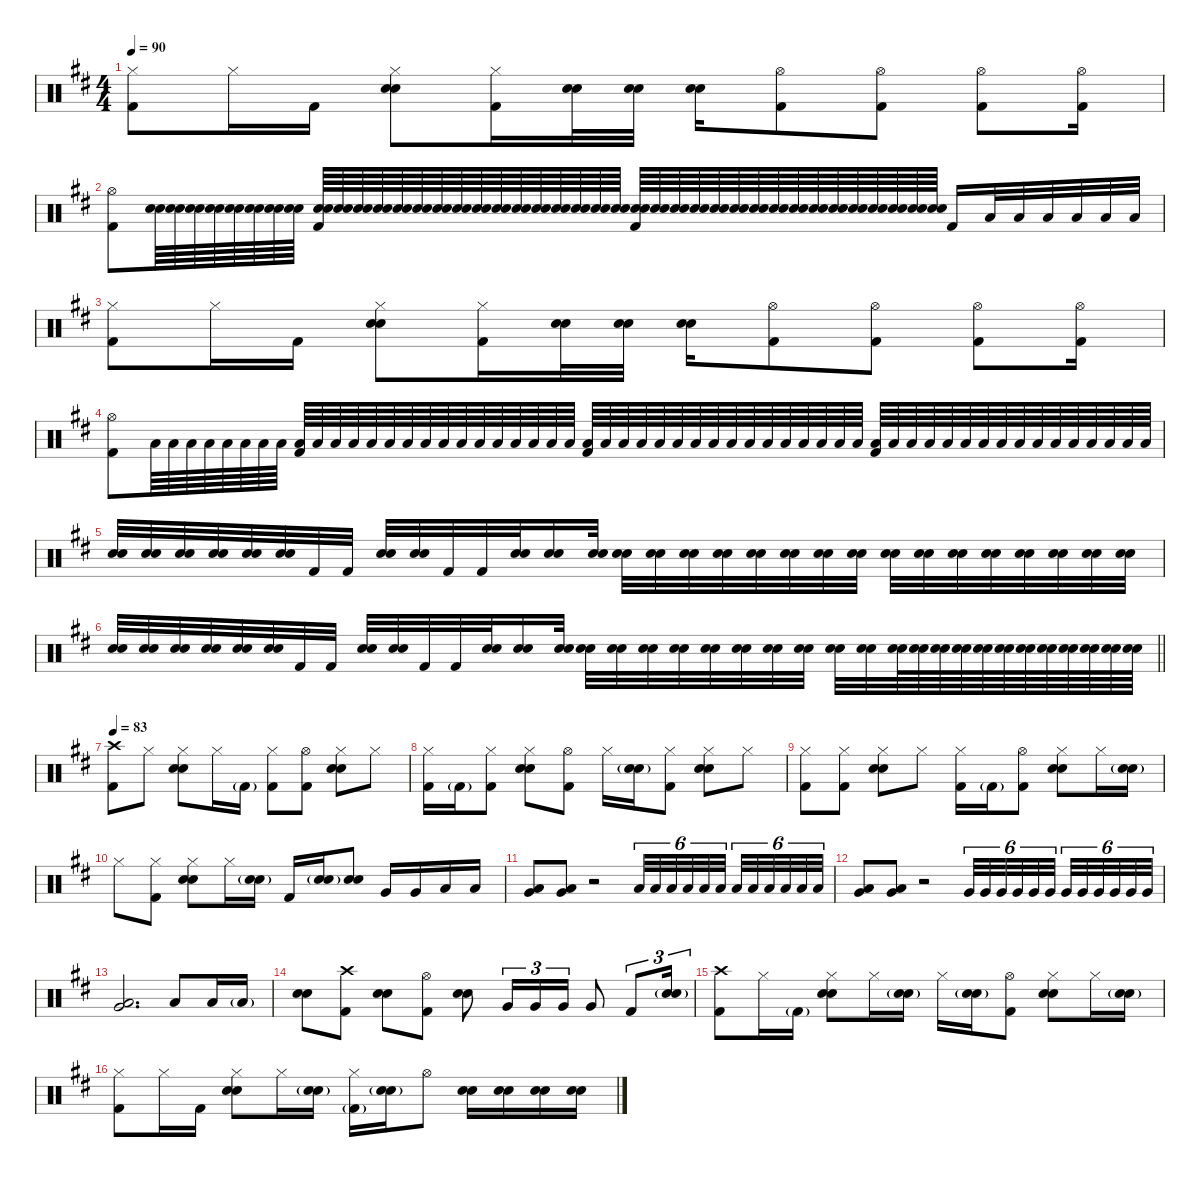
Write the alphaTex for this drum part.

\defaultSystemsLayout 4
\hideDynamics
\bracketExtendMode nobrackets
\singleTrackTrackNamePolicy hidden
\multiTrackTrackNamePolicy hidden
\firstSystemTrackNameMode fullname
\firstSystemTrackNameOrientation horizontal
\otherSystemsTrackNameOrientation horizontal
\track ("Batterie" "drm.") {defaultSystemsLayout 4 instrument percussion}
\staff {score}
\articulation defaults
\ts (4 4)
\tempo 90
\clef neutral
\ks bminor
("Hi-Hat (closed)"{acc forcenatural} "Kick (hit) 2"{acc forcenatural}).8{dy f beam Down} "Hi-Hat (closed)"{acc forcenatural}.16{beam Down} "Kick (hit) 2"{acc forcenatural}.16{dy mf beam Down} ("Hi-Hat (closed)"{acc forcenatural} "Snare (hit) 2"{acc forcenatural} "Snare (hit) 2"{acc forcenatural}).8{dy f beam Down} ("Hi-Hat (closed)"{acc forcenatural} "Kick (hit) 2"{acc forcenatural}).16{beam Down} ("Snare (hit) 2"{acc forcenatural} "Snare (hit) 2"{acc forcenatural}).32{dy p beam Down} ("Snare (hit) 2"{acc forcenatural} "Snare (hit) 2"{acc forcenatural}).32{dy mp beam Down} ("Snare (hit) 2"{acc forcenatural} "Snare (hit) 2"{acc forcenatural}).16{dy f beam Down} ("Hi-Hat (open)"{acc forcenatural} "Kick (hit) 2"{acc forcenatural}).8{beam Down} ("Hi-Hat (open)"{acc forcenatural} "Kick (hit) 2"{acc forcenatural}).8{beam Down} ("Hi-Hat (open)"{acc forcenatural} "Kick (hit) 2"{acc forcenatural}).8{beam Down} ("Hi-Hat (open)"{acc forcenatural} "Kick (hit) 2"{acc forcenatural}).16{beam Down} |
("Hi-Hat (open)"{acc forcenatural} "Kick (hit) 2"{acc forcenatural}).8{beam Down} ("Snare (hit) 2"{acc forcenatural} "Snare (hit) 2"{acc forcenatural}).64{dy pp beam Down} ("Snare (hit) 2"{acc forcenatural} "Snare (hit) 2"{acc forcenatural}).64{beam Down} ("Snare (hit) 2"{acc forcenatural} "Snare (hit) 2"{acc forcenatural}).64{beam Down} ("Snare (hit) 2"{acc forcenatural} "Snare (hit) 2"{acc forcenatural}).64{beam Down} ("Snare (hit) 2"{acc forcenatural} "Snare (hit) 2"{acc forcenatural}).64{beam Down} ("Snare (hit) 2"{acc forcenatural} "Snare (hit) 2"{acc forcenatural}).64{beam Down} ("Snare (hit) 2"{acc forcenatural} "Snare (hit) 2"{acc forcenatural}).64{beam Down} ("Snare (hit) 2"{acc forcenatural} "Snare (hit) 2"{acc forcenatural}).64{beam Down} ("Snare (hit) 2"{acc forcenatural} "Snare (hit) 2"{acc forcenatural} "Kick (hit) 2"{acc forcenatural}).64{beam Up} ("Snare (hit) 2"{acc forcenatural} "Snare (hit) 2"{acc forcenatural}).64{beam Up} ("Snare (hit) 2"{acc forcenatural} "Snare (hit) 2"{acc forcenatural}).64{beam Up} ("Snare (hit) 2"{acc forcenatural} "Snare (hit) 2"{acc forcenatural}).64{beam Up} ("Snare (hit) 2"{acc forcenatural} "Snare (hit) 2"{acc forcenatural}).64{dy p beam Up} ("Snare (hit) 2"{acc forcenatural} "Snare (hit) 2"{acc forcenatural}).64{beam Up} ("Snare (hit) 2"{acc forcenatural} "Snare (hit) 2"{acc forcenatural}).64{beam Up} ("Snare (hit) 2"{acc forcenatural} "Snare (hit) 2"{acc forcenatural}).64{beam Up} ("Snare (hit) 2"{acc forcenatural} "Snare (hit) 2"{acc forcenatural}).64{beam Up} ("Snare (hit) 2"{acc forcenatural} "Snare (hit) 2"{acc forcenatural}).64{beam Up} ("Snare (hit) 2"{acc forcenatural} "Snare (hit) 2"{acc forcenatural}).64{beam Up} ("Snare (hit) 2"{acc forcenatural} "Snare (hit) 2"{acc forcenatural}).64{beam Up} ("Snare (hit) 2"{acc forcenatural} "Snare (hit) 2"{acc forcenatural}).64{beam Up} ("Snare (hit) 2"{acc forcenatural} "Snare (hit) 2"{acc forcenatural}).64{beam Up} ("Snare (hit) 2"{acc forcenatural} "Snare (hit) 2"{acc forcenatural}).64{beam Up} ("Snare (hit) 2"{acc forcenatural} "Snare (hit) 2"{acc forcenatural}).64{beam Up} ("Snare (hit) 2"{acc forcenatural} "Snare (hit) 2"{acc forcenatural} "Kick (hit) 2"{acc forcenatural}).64{beam Up} ("Snare (hit) 2"{acc forcenatural} "Snare (hit) 2"{acc forcenatural}).64{beam Up} ("Snare (hit) 2"{acc forcenatural} "Snare (hit) 2"{acc forcenatural}).64{beam Up} ("Snare (hit) 2"{acc forcenatural} "Snare (hit) 2"{acc forcenatural}).64{dy mp beam Up} ("Snare (hit) 2"{acc forcenatural} "Snare (hit) 2"{acc forcenatural}).64{beam Up} ("Snare (hit) 2"{acc forcenatural} "Snare (hit) 2"{acc forcenatural}).64{beam Up} ("Snare (hit) 2"{acc forcenatural} "Snare (hit) 2"{acc forcenatural}).64{dy mf beam Up} ("Snare (hit) 2"{acc forcenatural} "Snare (hit) 2"{acc forcenatural}).64{beam Up} ("Snare (hit) 2"{acc forcenatural} "Snare (hit) 2"{acc forcenatural}).64{beam Up} ("Snare (hit) 2"{acc forcenatural} "Snare (hit) 2"{acc forcenatural}).64{beam Up} ("Snare (hit) 2"{acc forcenatural} "Snare (hit) 2"{acc forcenatural}).64{beam Up} ("Snare (hit) 2"{acc forcenatural} "Snare (hit) 2"{acc forcenatural}).64{beam Up} ("Snare (hit) 2"{acc forcenatural} "Snare (hit) 2"{acc forcenatural}).64{dy f beam Up} ("Snare (hit) 2"{acc forcenatural} "Snare (hit) 2"{acc forcenatural}).64{beam Up} ("Snare (hit) 2"{acc forcenatural} "Snare (hit) 2"{acc forcenatural}).64{beam Up} ("Snare (hit) 2"{acc forcenatural} "Snare (hit) 2"{acc forcenatural}).64{beam Up} "Kick (hit) 2"{acc forcenatural}.16{dy mf beam Up} "Low Floor Tom (hit)"{acc forcenatural}.32{dy fff beam Up} "Low Floor Tom (hit)"{acc forcenatural}.32{beam Up} "Low Tom (hit)"{acc forcenatural}.32{beam Up} "Low Tom (hit)"{acc forcenatural}.32{beam Up} "Low Tom (hit)"{acc forcenatural}.32{beam Up} "Low Tom (hit)"{acc forcenatural}.32{beam Up} |
("Hi-Hat (closed)"{acc forcenatural} "Kick (hit) 2"{acc forcenatural}).8{dy f beam Down} "Hi-Hat (closed)"{acc forcenatural}.16{beam Down} "Kick (hit) 2"{acc forcenatural}.16{dy mf beam Down} ("Hi-Hat (closed)"{acc forcenatural} "Snare (hit) 2"{acc forcenatural} "Snare (hit) 2"{acc forcenatural}).8{dy f beam Down} ("Hi-Hat (closed)"{acc forcenatural} "Kick (hit) 2"{acc forcenatural}).16{beam Down} ("Snare (hit) 2"{acc forcenatural} "Snare (hit) 2"{acc forcenatural}).32{dy p beam Down} ("Snare (hit) 2"{acc forcenatural} "Snare (hit) 2"{acc forcenatural}).32{dy mp beam Down} ("Snare (hit) 2"{acc forcenatural} "Snare (hit) 2"{acc forcenatural}).16{dy f beam Down} ("Hi-Hat (open)"{acc forcenatural} "Kick (hit) 2"{acc forcenatural}).8{beam Down} ("Hi-Hat (open)"{acc forcenatural} "Kick (hit) 2"{acc forcenatural}).8{beam Down} ("Hi-Hat (open)"{acc forcenatural} "Kick (hit) 2"{acc forcenatural}).8{beam Down} ("Hi-Hat (open)"{acc forcenatural} "Kick (hit) 2"{acc forcenatural}).16{beam Down} |
("Hi-Hat (open)"{acc forcenatural} "Kick (hit) 2"{acc forcenatural}).8{beam Down} "Low Floor Tom (hit)"{acc forcenatural}.64{dy pp beam Down} "Low Floor Tom (hit)"{acc forcenatural}.64{beam Down} "Low Floor Tom (hit)"{acc forcenatural}.64{beam Down} "Low Floor Tom (hit)"{acc forcenatural}.64{beam Down} "Low Floor Tom (hit)"{acc forcenatural}.64{beam Down} "Low Floor Tom (hit)"{acc forcenatural}.64{beam Down} "Low Floor Tom (hit)"{acc forcenatural}.64{beam Down} "Low Floor Tom (hit)"{acc forcenatural}.64{beam Down} ("Low Floor Tom (hit)"{acc forcenatural} "Kick (hit) 2"{acc forcenatural}).64{beam Up} "Low Floor Tom (hit)"{acc forcenatural}.64{dy p beam Up} "Low Floor Tom (hit)"{acc forcenatural}.64{beam Up} "Low Floor Tom (hit)"{acc forcenatural}.64{beam Up} "Low Floor Tom (hit)"{acc forcenatural}.64{beam Up} "Low Floor Tom (hit)"{acc forcenatural}.64{beam Up} "Low Floor Tom (hit)"{acc forcenatural}.64{beam Up} "Low Floor Tom (hit)"{acc forcenatural}.64{beam Up} "Low Floor Tom (hit)"{acc forcenatural}.64{beam Up} "Low Floor Tom (hit)"{acc forcenatural}.64{beam Up} "Low Floor Tom (hit)"{acc forcenatural}.64{beam Up} "Low Floor Tom (hit)"{acc forcenatural}.64{beam Up} "Low Floor Tom (hit)"{acc forcenatural}.64{beam Up} "Low Floor Tom (hit)"{acc forcenatural}.64{dy mp beam Up} "Low Floor Tom (hit)"{acc forcenatural}.64{beam Up} "Low Floor Tom (hit)"{acc forcenatural}.64{beam Up} ("Low Floor Tom (hit)"{acc forcenatural} "Kick (hit) 2"{acc forcenatural}).64{beam Up} "Low Floor Tom (hit)"{acc forcenatural}.64{beam Up} "Low Floor Tom (hit)"{acc forcenatural}.64{beam Up} "Low Floor Tom (hit)"{acc forcenatural}.64{beam Up} "Low Floor Tom (hit)"{acc forcenatural}.64{beam Up} "Low Floor Tom (hit)"{acc forcenatural}.64{beam Up} "Low Floor Tom (hit)"{acc forcenatural}.64{beam Up} "Low Floor Tom (hit)"{acc forcenatural}.64{beam Up} "Low Floor Tom (hit)"{acc forcenatural}.64{beam Up} "Low Floor Tom (hit)"{acc forcenatural}.64{beam Up} "Low Floor Tom (hit)"{acc forcenatural}.64{dy mf beam Up} "Low Floor Tom (hit)"{acc forcenatural}.64{beam Up} "Low Floor Tom (hit)"{acc forcenatural}.64{beam Up} "Low Floor Tom (hit)"{acc forcenatural}.64{beam Up} "Low Floor Tom (hit)"{acc forcenatural}.64{beam Up} "Low Floor Tom (hit)"{acc forcenatural}.64{beam Up} ("Low Floor Tom (hit)"{acc forcenatural} "Kick (hit) 2"{acc forcenatural}).64{beam Up} "Low Floor Tom (hit)"{acc forcenatural}.64{beam Up} "Low Floor Tom (hit)"{acc forcenatural}.64{beam Up} "Low Floor Tom (hit)"{acc forcenatural}.64{beam Up} "Low Floor Tom (hit)"{acc forcenatural}.64{beam Up} "Low Floor Tom (hit)"{acc forcenatural}.64{beam Up} "Low Floor Tom (hit)"{acc forcenatural}.64{beam Up} "Low Floor Tom (hit)"{acc forcenatural}.64{dy f beam Up} "Low Floor Tom (hit)"{acc forcenatural}.64{beam Up} "Low Floor Tom (hit)"{acc forcenatural}.64{beam Up} "Low Floor Tom (hit)"{acc forcenatural}.64{beam Up} "Low Floor Tom (hit)"{acc forcenatural}.64{beam Up} "Low Floor Tom (hit)"{acc forcenatural}.64{beam Up} "Low Floor Tom (hit)"{acc forcenatural}.64{beam Up} "Low Floor Tom (hit)"{acc forcenatural}.64{beam Up} "Low Floor Tom (hit)"{acc forcenatural}.64{beam Up} |
("Snare (hit) 2"{acc forcenatural} "Snare (hit) 2"{acc forcenatural}).32{beam Up} ("Snare (hit) 2"{acc forcenatural} "Snare (hit) 2"{acc forcenatural}).32{beam Up} ("Snare (hit) 2"{acc forcenatural} "Snare (hit) 2"{acc forcenatural}).32{beam Up} ("Snare (hit) 2"{acc forcenatural} "Snare (hit) 2"{acc forcenatural}).32{beam Up} ("Snare (hit) 2"{acc forcenatural} "Snare (hit) 2"{acc forcenatural}).32{beam Up} ("Snare (hit) 2"{acc forcenatural} "Snare (hit) 2"{acc forcenatural}).32{beam Up} "Kick (hit) 2"{acc forcenatural}.32{dy mf beam Up} "Kick (hit) 2"{acc forcenatural}.32{beam Up} ("Snare (hit) 2"{acc forcenatural} "Snare (hit) 2"{acc forcenatural}).32{dy f beam Up} ("Snare (hit) 2"{acc forcenatural} "Snare (hit) 2"{acc forcenatural}).32{beam Up} "Kick (hit) 2"{acc forcenatural}.32{dy mf beam Up} "Kick (hit) 2"{acc forcenatural}.32{beam Up} ("Snare (hit) 2"{acc forcenatural} "Snare (hit) 2"{acc forcenatural}).32{dy f beam Up} ("Snare (hit) 2"{acc forcenatural} "Snare (hit) 2"{acc forcenatural}).16{beam Up} ("Snare (hit) 2"{acc forcenatural} "Snare (hit) 2"{acc forcenatural}).32{dy mf beam Up} ("Snare (hit) 2"{acc forcenatural} "Snare (hit) 2"{acc forcenatural}).32{dy f beam Down} ("Snare (hit) 2"{acc forcenatural} "Snare (hit) 2"{acc forcenatural}).32{beam Down} ("Snare (hit) 2"{acc forcenatural} "Snare (hit) 2"{acc forcenatural}).32{dy mf beam Down} ("Snare (hit) 2"{acc forcenatural} "Snare (hit) 2"{acc forcenatural}).32{dy mp beam Down} ("Snare (hit) 2"{acc forcenatural} "Snare (hit) 2"{acc forcenatural}).32{dy mf beam Down} ("Snare (hit) 2"{acc forcenatural} "Snare (hit) 2"{acc forcenatural}).32{dy f beam Down} ("Snare (hit) 2"{acc forcenatural} "Snare (hit) 2"{acc forcenatural}).32{beam Down} ("Snare (hit) 2"{acc forcenatural} "Snare (hit) 2"{acc forcenatural}).32{dy mf beam Down} ("Snare (hit) 2"{acc forcenatural} "Snare (hit) 2"{acc forcenatural}).32{dy mp beam Down} ("Snare (hit) 2"{acc forcenatural} "Snare (hit) 2"{acc forcenatural}).32{dy mf beam Down} ("Snare (hit) 2"{acc forcenatural} "Snare (hit) 2"{acc forcenatural}).32{dy f beam Down} ("Snare (hit) 2"{acc forcenatural} "Snare (hit) 2"{acc forcenatural}).32{dy ff beam Down} ("Snare (hit) 2"{acc forcenatural} "Snare (hit) 2"{acc forcenatural}).32{beam Down} ("Snare (hit) 2"{acc forcenatural} "Snare (hit) 2"{acc forcenatural}).32{dy f beam Down} ("Snare (hit) 2"{acc forcenatural} "Snare (hit) 2"{acc forcenatural}).32{dy mf beam Down} ("Snare (hit) 2"{acc forcenatural} "Snare (hit) 2"{acc forcenatural}).32{dy mp beam Down} |
\barLineRight lightlight
("Snare (hit) 2"{acc forcenatural} "Snare (hit) 2"{acc forcenatural}).32{dy mf beam Up} ("Snare (hit) 2"{acc forcenatural} "Snare (hit) 2"{acc forcenatural}).32{dy f beam Up} ("Snare (hit) 2"{acc forcenatural} "Snare (hit) 2"{acc forcenatural}).32{beam Up} ("Snare (hit) 2"{acc forcenatural} "Snare (hit) 2"{acc forcenatural}).32{beam Up} ("Snare (hit) 2"{acc forcenatural} "Snare (hit) 2"{acc forcenatural}).32{beam Up} ("Snare (hit) 2"{acc forcenatural} "Snare (hit) 2"{acc forcenatural}).32{beam Up} "Kick (hit) 2"{acc forcenatural}.32{dy mf beam Up} "Kick (hit) 2"{acc forcenatural}.32{beam Up} ("Snare (hit) 2"{acc forcenatural} "Snare (hit) 2"{acc forcenatural}).32{dy f beam Up} ("Snare (hit) 2"{acc forcenatural} "Snare (hit) 2"{acc forcenatural}).32{beam Up} "Kick (hit) 2"{acc forcenatural}.32{dy mf beam Up} "Kick (hit) 2"{acc forcenatural}.32{beam Up} ("Snare (hit) 2"{acc forcenatural} "Snare (hit) 2"{acc forcenatural}).32{dy f beam Up} ("Snare (hit) 2"{acc forcenatural} "Snare (hit) 2"{acc forcenatural}).16{beam Up} ("Snare (hit) 2"{acc forcenatural} "Snare (hit) 2"{acc forcenatural}).32{dy mf beam Up} ("Snare (hit) 2"{acc forcenatural} "Snare (hit) 2"{acc forcenatural}).32{dy f beam Down} ("Snare (hit) 2"{acc forcenatural} "Snare (hit) 2"{acc forcenatural}).32{beam Down} ("Snare (hit) 2"{acc forcenatural} "Snare (hit) 2"{acc forcenatural}).32{dy mf beam Down} ("Snare (hit) 2"{acc forcenatural} "Snare (hit) 2"{acc forcenatural}).32{dy mp beam Down} ("Snare (hit) 2"{acc forcenatural} "Snare (hit) 2"{acc forcenatural}).32{beam Down} ("Snare (hit) 2"{acc forcenatural} "Snare (hit) 2"{acc forcenatural}).32{dy mf beam Down} ("Snare (hit) 2"{acc forcenatural} "Snare (hit) 2"{acc forcenatural}).32{dy f beam Down} ("Snare (hit) 2"{acc forcenatural} "Snare (hit) 2"{acc forcenatural}).32{dy ff beam Down} ("Snare (hit) 2"{acc forcenatural} "Snare (hit) 2"{acc forcenatural}).32{dy f beam Down} ("Snare (hit) 2"{acc forcenatural} "Snare (hit) 2"{acc forcenatural}).32{beam Down} ("Snare (hit) 2"{acc forcenatural} "Snare (hit) 2"{acc forcenatural}).64{beam Down} ("Snare (hit) 2"{acc forcenatural} "Snare (hit) 2"{acc forcenatural}).64{beam Down} ("Snare (hit) 2"{acc forcenatural} "Snare (hit) 2"{acc forcenatural}).64{beam Down} ("Snare (hit) 2"{acc forcenatural} "Snare (hit) 2"{acc forcenatural}).64{beam Down} ("Snare (hit) 2"{acc forcenatural} "Snare (hit) 2"{acc forcenatural}).64{dy mf beam Down} ("Snare (hit) 2"{acc forcenatural} "Snare (hit) 2"{acc forcenatural}).64{beam Down} ("Snare (hit) 2"{acc forcenatural} "Snare (hit) 2"{acc forcenatural}).64{beam Down} ("Snare (hit) 2"{acc forcenatural} "Snare (hit) 2"{acc forcenatural}).64{beam Down} ("Snare (hit) 2"{acc forcenatural} "Snare (hit) 2"{acc forcenatural}).64{dy mp beam Down} ("Snare (hit) 2"{acc forcenatural} "Snare (hit) 2"{acc forcenatural}).64{beam Down} ("Snare (hit) 2"{acc forcenatural} "Snare (hit) 2"{acc forcenatural}).64{beam Down} ("Snare (hit) 2"{acc forcenatural} "Snare (hit) 2"{acc forcenatural}).64{beam Down} |
\tempo 83
("Crash high (hit)"{acc forcenatural} "Kick (hit) 2"{acc forcenatural}).8{beam Down} "Hi-Hat (closed)"{acc forcenatural}.8{dy f beam Down} ("Hi-Hat (closed)"{acc forcenatural} "Snare (hit) 2"{acc forcenatural} "Snare (hit) 2"{acc forcenatural}).8{beam Down} "Hi-Hat (closed)"{acc forcenatural}.16{beam Down} "Kick (hit) 2"{g acc forcenatural}.16{dy mf beam Down} ("Hi-Hat (closed)"{acc forcenatural} "Kick (hit) 2"{acc forcenatural}).8{dy f beam Down} ("Hi-Hat (open)"{acc forcenatural} "Kick (hit) 2"{acc forcenatural}).8{dy mf beam Down} ("Hi-Hat (closed)"{acc forcenatural} "Snare (hit) 2"{acc forcenatural} "Snare (hit) 2"{acc forcenatural}).8{dy f beam Down} "Hi-Hat (closed)"{acc forcenatural}.8{beam Down} |
("Hi-Hat (closed)"{acc forcenatural} "Kick (hit) 2"{acc forcenatural}).16{beam Down} "Kick (hit) 2"{g acc forcenatural}.16{beam Down} ("Hi-Hat (closed)"{acc forcenatural} "Kick (hit) 2"{acc forcenatural}).8{beam Down} ("Hi-Hat (closed)"{acc forcenatural} "Snare (hit) 2"{acc forcenatural} "Snare (hit) 2"{acc forcenatural}).8{beam Down} ("Hi-Hat (open)"{acc forcenatural} "Kick (hit) 2"{acc forcenatural}).8{dy mf beam Down} "Hi-Hat (closed)"{acc forcenatural}.16{dy f beam Down} ("Snare (hit) 2"{g acc forcenatural} "Snare (hit) 2"{g acc forcenatural}).16{dy mf beam Down} ("Hi-Hat (closed)"{acc forcenatural} "Kick (hit) 2"{acc forcenatural}).8{dy f beam Down} ("Hi-Hat (closed)"{acc forcenatural} "Snare (hit) 2"{acc forcenatural} "Snare (hit) 2"{acc forcenatural}).8{beam Down} "Hi-Hat (closed)"{acc forcenatural}.8{beam Down} |
("Hi-Hat (closed)"{acc forcenatural} "Kick (hit) 2"{acc forcenatural}).8{beam Down} ("Hi-Hat (closed)"{acc forcenatural} "Kick (hit) 2"{acc forcenatural}).8{beam Down} ("Hi-Hat (closed)"{acc forcenatural} "Snare (hit) 2"{acc forcenatural} "Snare (hit) 2"{acc forcenatural}).8{beam Down} "Hi-Hat (closed)"{acc forcenatural}.8{beam Down} ("Hi-Hat (closed)"{acc forcenatural} "Kick (hit) 2"{acc forcenatural}).16{beam Down} "Kick (hit) 2"{g acc forcenatural}.16{beam Down} ("Hi-Hat (open)"{acc forcenatural} "Kick (hit) 2"{acc forcenatural}).8{dy mf beam Down} ("Hi-Hat (closed)"{acc forcenatural} "Snare (hit) 2"{acc forcenatural} "Snare (hit) 2"{acc forcenatural}).8{dy f beam Down} "Hi-Hat (closed)"{acc forcenatural}.16{beam Down} ("Snare (hit) 2"{g acc forcenatural} "Snare (hit) 2"{g acc forcenatural}).16{dy mf beam Down} |
"Hi-Hat (closed)"{acc forcenatural}.8{dy f beam Down} ("Hi-Hat (closed)"{acc forcenatural} "Kick (hit) 2"{acc forcenatural}).8{beam Down} ("Hi-Hat (closed)"{acc forcenatural} "Snare (hit) 2"{acc forcenatural} "Snare (hit) 2"{acc forcenatural}).8{beam Down} "Hi-Hat (closed)"{acc forcenatural}.16{beam Down} ("Snare (hit) 2"{g acc forcenatural} "Snare (hit) 2"{g acc forcenatural}).16{beam Down} "Kick (hit) 2"{acc forcenatural}.16{dy mf beam Up} ("Snare (hit) 2"{g acc forcenatural} "Snare (hit) 2"{g acc forcenatural}).16{dy f beam Up} ("Snare (hit) 2"{acc forcenatural} "Snare (hit) 2"{acc forcenatural}).8{dy mf beam Up} "Very Low Tom (hit)"{acc forcenatural}.16{dy f beam Up} "Very Low Tom (hit)"{acc forcenatural}.16{beam Up} "Low Floor Tom (hit)"{acc forcenatural}.16{beam Up} "Low Floor Tom (hit)"{acc forcenatural}.16{beam Up} |
("Very Low Tom (hit)"{acc forcenatural} "Low Floor Tom (hit)"{acc forcenatural}).8{beam Up} ("Very Low Tom (hit)"{acc forcenatural} "Low Floor Tom (hit)"{acc forcenatural}).8{beam Up} r.2{beam Up} "Low Floor Tom (hit)"{acc forcenatural}.32{tu (6 4) beam Up} "Low Floor Tom (hit)"{acc forcenatural}.32{tu (6 4) dy mf beam Up} "Low Floor Tom (hit)"{acc forcenatural}.32{tu (6 4) dy mp beam Up} "Low Floor Tom (hit)"{acc forcenatural}.32{tu (6 4) dy p beam Up} "Low Floor Tom (hit)"{acc forcenatural}.32{tu (6 4) beam Up} "Low Floor Tom (hit)"{acc forcenatural}.32{tu (6 4) beam Up} "Low Floor Tom (hit)"{acc forcenatural}.32{tu (6 4) beam Up} "Low Floor Tom (hit)"{acc forcenatural}.32{tu (6 4) beam Up} "Low Floor Tom (hit)"{acc forcenatural}.32{tu (6 4) dy mp beam Up} "Low Floor Tom (hit)"{acc forcenatural}.32{tu (6 4) dy mf beam Up} "Low Floor Tom (hit)"{acc forcenatural}.32{tu (6 4) beam Up} "Low Floor Tom (hit)"{acc forcenatural}.32{tu (6 4) dy f beam Up} |
("Very Low Tom (hit)"{acc forcenatural} "Low Floor Tom (hit)"{acc forcenatural}).8{beam Up} ("Very Low Tom (hit)"{acc forcenatural} "Low Floor Tom (hit)"{acc forcenatural}).8{beam Up} r.2{beam Up} "Very Low Tom (hit)"{acc forcenatural}.32{tu (6 4) beam Up} "Very Low Tom (hit)"{acc forcenatural}.32{tu (6 4) dy mf beam Up} "Very Low Tom (hit)"{acc forcenatural}.32{tu (6 4) dy mp beam Up} "Very Low Tom (hit)"{acc forcenatural}.32{tu (6 4) dy p beam Up} "Very Low Tom (hit)"{acc forcenatural}.32{tu (6 4) beam Up} "Very Low Tom (hit)"{acc forcenatural}.32{tu (6 4) beam Up} "Very Low Tom (hit)"{acc forcenatural}.32{tu (6 4) beam Up} "Very Low Tom (hit)"{acc forcenatural}.32{tu (6 4) beam Up} "Very Low Tom (hit)"{acc forcenatural}.32{tu (6 4) dy mp beam Up} "Very Low Tom (hit)"{acc forcenatural}.32{tu (6 4) dy mf beam Up} "Very Low Tom (hit)"{acc forcenatural}.32{tu (6 4) beam Up} "Very Low Tom (hit)"{acc forcenatural}.32{tu (6 4) dy f beam Up} |
("Very Low Tom (hit)"{acc forcenatural} "Low Floor Tom (hit)"{acc forcenatural}).2{d beam Up} "Low Floor Tom (hit)"{acc forcenatural}.8{beam Up} "Low Floor Tom (hit)"{acc forcenatural}.16{beam Up} "Low Floor Tom (hit)"{g acc forcenatural}.16{beam Up} |
("Snare (hit) 2"{acc forcenatural} "Snare (hit) 2"{acc forcenatural}).8{dy mf beam Down} ("Crash high (hit)"{acc forcenatural} "Kick (hit) 2"{acc forcenatural}).8{dy mp beam Down} ("Snare (hit) 2"{acc forcenatural} "Snare (hit) 2"{acc forcenatural}).8{dy mf beam Down} ("Hi-Hat (open)"{acc forcenatural} "Kick (hit) 2"{acc forcenatural}).8{beam Down} ("Snare (hit) 2"{acc forcenatural} "Snare (hit) 2"{acc forcenatural}).8{dy mp beam Down} "Very Low Tom (hit)"{acc forcenatural}.16{tu (3 2) dy f beam Up} "Very Low Tom (hit)"{acc forcenatural}.16{tu (3 2) dy mf beam Up} "Very Low Tom (hit)"{acc forcenatural}.16{tu (3 2) beam Up} "Very Low Tom (hit)"{acc forcenatural}.8{beam Up} "Kick (hit) 2"{acc forcenatural}.8{tu (3 2) beam Up} ("Snare (hit) 2"{g acc forcenatural} "Snare (hit) 2"{g acc forcenatural}).16{tu (3 2) beam Up} |
("Crash high (hit)"{acc forcenatural} "Kick (hit) 2"{acc forcenatural}).8{dy mp beam Down} "Hi-Hat (closed)"{acc forcenatural}.16{dy f beam Down} "Kick (hit) 2"{g acc forcenatural}.16{beam Down} ("Hi-Hat (closed)"{acc forcenatural} "Snare (hit) 2"{acc forcenatural} "Snare (hit) 2"{acc forcenatural}).8{beam Down} "Hi-Hat (closed)"{acc forcenatural}.16{beam Down} ("Snare (hit) 2"{g acc forcenatural} "Snare (hit) 2"{g acc forcenatural}).16{dy mf beam Down} "Hi-Hat (closed)"{acc forcenatural}.16{dy f beam Down} ("Snare (hit) 2"{g acc forcenatural} "Snare (hit) 2"{g acc forcenatural}).16{dy mp beam Down} ("Hi-Hat (open)"{acc forcenatural} "Kick (hit) 2"{acc forcenatural}).8{dy mf beam Down} ("Hi-Hat (closed)"{acc forcenatural} "Snare (hit) 2"{acc forcenatural} "Snare (hit) 2"{acc forcenatural}).8{dy f beam Down} "Hi-Hat (closed)"{acc forcenatural}.16{beam Down} ("Snare (hit) 2"{g acc forcenatural} "Snare (hit) 2"{g acc forcenatural}).16{dy mp beam Down} |
("Hi-Hat (closed)"{acc forcenatural} "Kick (hit) 2"{acc forcenatural}).8{dy f beam Down} "Hi-Hat (closed)"{acc forcenatural}.16{beam Down} "Kick (hit) 2"{acc forcenatural}.16{dy mf beam Down} ("Hi-Hat (closed)"{acc forcenatural} "Snare (hit) 2"{acc forcenatural} "Snare (hit) 2"{acc forcenatural}).8{dy f beam Down} "Hi-Hat (closed)"{acc forcenatural}.16{beam Down} ("Snare (hit) 2"{g acc forcenatural} "Snare (hit) 2"{g acc forcenatural}).16{dy mf beam Down} ("Hi-Hat (closed)"{acc forcenatural} "Kick (hit) 2"{g acc forcenatural}).16{dy f beam Down} ("Snare (hit) 2"{g acc forcenatural} "Snare (hit) 2"{g acc forcenatural}).16{dy mp beam Down} "Hi-Hat (open)"{acc forcenatural}.8{beam Down} ("Snare (hit) 2"{acc forcenatural} "Snare (hit) 2"{acc forcenatural}).16{beam Down} ("Snare (hit) 2"{acc forcenatural} "Snare (hit) 2"{acc forcenatural}).16{beam Down} ("Snare (hit) 2"{acc forcenatural} "Snare (hit) 2"{acc forcenatural}).16{beam Down} ("Snare (hit) 2"{acc forcenatural} "Snare (hit) 2"{acc forcenatural}).16{dy mf beam Down}
